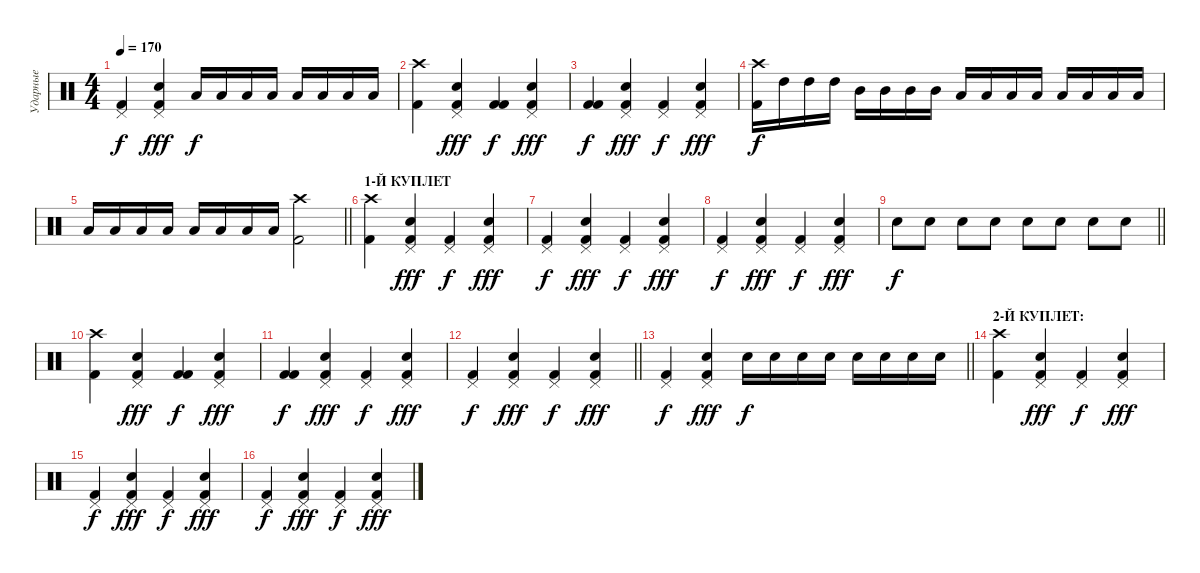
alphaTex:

\track ("Ударные" "Ударные") {instrument percussion}
\staff {score}
\articulation defaults
\ts (4 4)
\tempo 170
\clef neutral
\ks c
("Pedal Hi-Hat (hit)" "Kick (hit) 2").4{dy f} ("Pedal Hi-Hat (hit)" "Snare (hit) 2" "Kick (hit) 2").4{dy fff} "Low Tom (hit)".16{dy f} "Low Tom (hit)".16 "Low Tom (hit)".16 "Low Tom (hit)".16 "Low Floor Tom (hit)".16 "Low Floor Tom (hit)".16 "Low Floor Tom (hit)".16 "Low Floor Tom (hit)".16 |
("Crash high (hit)" "Kick (hit) 2").4 ("Pedal Hi-Hat (hit)" "Snare (hit) 2" "Kick (hit) 2").4{dy fff} ("Kick (hit) 2" "Kick (hit) 2").4{dy f} ("Pedal Hi-Hat (hit)" "Snare (hit) 2" "Kick (hit) 2").4{dy fff} |
("Kick (hit) 2" "Kick (hit) 2").4{dy f} ("Pedal Hi-Hat (hit)" "Snare (hit) 2" "Kick (hit) 2").4{dy fff} ("Pedal Hi-Hat (hit)" "Kick (hit) 2").4{dy f} ("Pedal Hi-Hat (hit)" "Snare (hit) 2" "Kick (hit) 2").4{dy fff} |
("Crash high (hit)" "Kick (hit) 2").16{dy f} "High Tom (hit)".16 "High Tom (hit)".16 "High Tom (hit)".16 "Mid Tom (hit)".16 "Mid Tom (hit)".16 "Mid Tom (hit)".16 "Mid Tom (hit)".16 "Low Tom (hit)".16 "Low Tom (hit)".16 "Low Tom (hit)".16 "Low Tom (hit)".16 "Low Floor Tom (hit)".16 "Low Floor Tom (hit)".16 "Low Floor Tom (hit)".16 "Low Floor Tom (hit)".16 |
\barLineRight lightlight "Low Tom (hit)".16 "Low Tom (hit)".16 "Low Tom (hit)".16 "Low Tom (hit)".16 "Low Floor Tom (hit)".16 "Low Floor Tom (hit)".16 "Low Floor Tom (hit)".16 "Low Floor Tom (hit)".16
("Crash high (hit)" "Kick (hit) 2").2 |
\section ("" "1-Й КУПЛЕТ")
("Crash high (hit)" "Kick (hit) 2").4 ("Pedal Hi-Hat (hit)" "Snare (hit) 2" "Kick (hit) 2").4{dy fff} ("Pedal Hi-Hat (hit)" "Kick (hit) 2").4{dy f} ("Pedal Hi-Hat (hit)" "Snare (hit) 2" "Kick (hit) 2").4{dy fff} |
("Pedal Hi-Hat (hit)" "Kick (hit) 2").4{dy f} ("Pedal Hi-Hat (hit)" "Snare (hit) 2" "Kick (hit) 2").4{dy fff} ("Pedal Hi-Hat (hit)" "Kick (hit) 2").4{dy f} ("Pedal Hi-Hat (hit)" "Snare (hit) 2" "Kick (hit) 2").4{dy fff} |
("Pedal Hi-Hat (hit)" "Kick (hit) 2").4{dy f} ("Pedal Hi-Hat (hit)" "Snare (hit) 2" "Kick (hit) 2").4{dy fff} ("Pedal Hi-Hat (hit)" "Kick (hit) 2").4{dy f} ("Pedal Hi-Hat (hit)" "Snare (hit) 2" "Kick (hit) 2").4{dy fff} |
\barLineRight lightlight "Snare (hit) 2".8{dy f} "Snare (hit) 2".8 "Snare (hit) 2".8 "Snare (hit) 2".8 "Electric Snare (hit)".8 "Electric Snare (hit)".8 "Electric Snare (hit)".8 "Electric Snare (hit)".8
|
("Crash high (hit)" "Kick (hit) 2").4 ("Pedal Hi-Hat (hit)" "Snare (hit) 2" "Kick (hit) 2").4{dy fff} ("Kick (hit) 2" "Kick (hit) 2").4{dy f} ("Pedal Hi-Hat (hit)" "Snare (hit) 2" "Kick (hit) 2").4{dy fff} |
("Kick (hit) 2" "Kick (hit) 2").4{dy f} ("Pedal Hi-Hat (hit)" "Snare (hit) 2" "Kick (hit) 2").4{dy fff} ("Pedal Hi-Hat (hit)" "Kick (hit) 2").4{dy f} ("Pedal Hi-Hat (hit)" "Snare (hit) 2" "Kick (hit) 2").4{dy fff} |
\barLineRight lightlight
("Pedal Hi-Hat (hit)" "Kick (hit) 2").4{dy f} ("Pedal Hi-Hat (hit)" "Snare (hit) 2" "Kick (hit) 2").4{dy fff} ("Pedal Hi-Hat (hit)" "Kick (hit) 2").4{dy f} ("Pedal Hi-Hat (hit)" "Snare (hit) 2" "Kick (hit) 2").4{dy fff} |
\section ("" "")
\barLineRight lightlight
("Pedal Hi-Hat (hit)" "Kick (hit) 2").4{dy f} ("Pedal Hi-Hat (hit)" "Snare (hit) 2" "Kick (hit) 2").4{dy fff} "Snare (hit) 2".16{dy f} "Snare (hit) 2".16 "Snare (hit) 2".16 "Snare (hit) 2".16 "Electric Snare (hit)".16 "Electric Snare (hit)".16 "Electric Snare (hit)".16 "Electric Snare (hit)".16 |
\section ("" "2-Й КУПЛЕТ:")
("Crash high (hit)" "Kick (hit) 2").4 ("Pedal Hi-Hat (hit)" "Snare (hit) 2" "Kick (hit) 2").4{dy fff} ("Pedal Hi-Hat (hit)" "Kick (hit) 2").4{dy f} ("Pedal Hi-Hat (hit)" "Snare (hit) 2" "Kick (hit) 2").4{dy fff} |
("Pedal Hi-Hat (hit)" "Kick (hit) 2").4{dy f} ("Pedal Hi-Hat (hit)" "Snare (hit) 2" "Kick (hit) 2").4{dy fff} ("Pedal Hi-Hat (hit)" "Kick (hit) 2").4{dy f} ("Pedal Hi-Hat (hit)" "Snare (hit) 2" "Kick (hit) 2").4{dy fff} |
("Pedal Hi-Hat (hit)" "Kick (hit) 2").4{dy f} ("Pedal Hi-Hat (hit)" "Snare (hit) 2" "Kick (hit) 2").4{dy fff} ("Pedal Hi-Hat (hit)" "Kick (hit) 2").4{dy f} ("Pedal Hi-Hat (hit)" "Snare (hit) 2" "Kick (hit) 2").4{dy fff}
